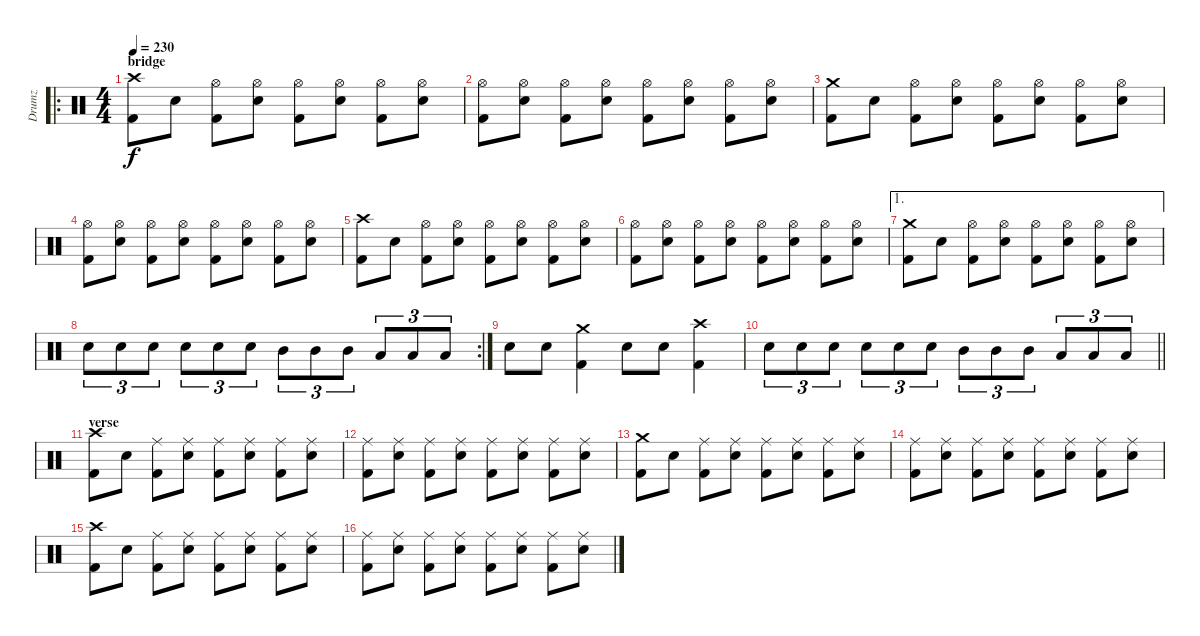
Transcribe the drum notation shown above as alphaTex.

\track ("Drumz" "Drumz") {instrument percussion}
\staff {score}
\articulation defaults
\ro
\ts (4 4)
\section ("" "bridge")
\tempo 230
\clef neutral
\ks c
("Crash high (hit)" "Kick (hit) 2").8{dy f} "Electric Snare (hit)".8 ("Hi-Hat (open)" "Kick (hit) 2").8 ("Hi-Hat (open)" "Electric Snare (hit)").8 ("Hi-Hat (open)" "Kick (hit) 2").8 ("Hi-Hat (open)" "Electric Snare (hit)").8 ("Hi-Hat (open)" "Kick (hit) 2").8 ("Hi-Hat (open)" "Electric Snare (hit)").8 |
("Hi-Hat (open)" "Kick (hit) 2").8 ("Hi-Hat (open)" "Electric Snare (hit)").8 ("Hi-Hat (open)" "Kick (hit) 2").8 ("Hi-Hat (open)" "Electric Snare (hit)").8 ("Hi-Hat (open)" "Kick (hit) 2").8 ("Hi-Hat (open)" "Electric Snare (hit)").8 ("Hi-Hat (open)" "Kick (hit) 2").8 ("Hi-Hat (open)" "Electric Snare (hit)").8 |
("Crash medium (hit)" "Kick (hit) 2").8 "Electric Snare (hit)".8 ("Hi-Hat (open)" "Kick (hit) 2").8 ("Hi-Hat (open)" "Electric Snare (hit)").8 ("Hi-Hat (open)" "Kick (hit) 2").8 ("Hi-Hat (open)" "Electric Snare (hit)").8 ("Hi-Hat (open)" "Kick (hit) 2").8 ("Hi-Hat (open)" "Electric Snare (hit)").8 |
("Hi-Hat (open)" "Kick (hit) 2").8 ("Hi-Hat (open)" "Electric Snare (hit)").8 ("Hi-Hat (open)" "Kick (hit) 2").8 ("Hi-Hat (open)" "Electric Snare (hit)").8 ("Hi-Hat (open)" "Kick (hit) 2").8 ("Hi-Hat (open)" "Electric Snare (hit)").8 ("Hi-Hat (open)" "Kick (hit) 2").8 ("Hi-Hat (open)" "Electric Snare (hit)").8 |
("Crash high (hit)" "Kick (hit) 2").8 "Electric Snare (hit)".8 ("Hi-Hat (open)" "Kick (hit) 2").8 ("Hi-Hat (open)" "Electric Snare (hit)").8 ("Hi-Hat (open)" "Kick (hit) 2").8 ("Hi-Hat (open)" "Electric Snare (hit)").8 ("Hi-Hat (open)" "Kick (hit) 2").8 ("Hi-Hat (open)" "Electric Snare (hit)").8 |
("Hi-Hat (open)" "Kick (hit) 2").8 ("Hi-Hat (open)" "Electric Snare (hit)").8 ("Hi-Hat (open)" "Kick (hit) 2").8 ("Hi-Hat (open)" "Electric Snare (hit)").8 ("Hi-Hat (open)" "Kick (hit) 2").8 ("Hi-Hat (open)" "Electric Snare (hit)").8 ("Hi-Hat (open)" "Kick (hit) 2").8 ("Hi-Hat (open)" "Electric Snare (hit)").8 |
\ae 1
("Crash medium (hit)" "Kick (hit) 2").8 "Electric Snare (hit)".8 ("Hi-Hat (open)" "Kick (hit) 2").8 ("Hi-Hat (open)" "Electric Snare (hit)").8 ("Hi-Hat (open)" "Kick (hit) 2").8 ("Hi-Hat (open)" "Electric Snare (hit)").8 ("Hi-Hat (open)" "Kick (hit) 2").8 ("Hi-Hat (open)" "Electric Snare (hit)").8 |
\rc 2 "Electric Snare (hit)".8{tu (3 2)} "Electric Snare (hit)".8{tu (3 2)} "Electric Snare (hit)".8{tu (3 2)} "Electric Snare (hit)".8{tu (3 2)} "Electric Snare (hit)".8{tu (3 2)} "Electric Snare (hit)".8{tu (3 2)} "Mid Tom (hit)".8{tu (3 2)} "Mid Tom (hit)".8{tu (3 2)} "Mid Tom (hit)".8{tu (3 2)} "Low Tom (hit)".8{tu (3 2)} "Low Tom (hit)".8{tu (3 2)} "Low Tom (hit)".8{tu (3 2)}
|
"Electric Snare (hit)".8 "Electric Snare (hit)".8 ("Crash medium (hit)" "Kick (hit) 2").4 "Electric Snare (hit)".8 "Electric Snare (hit)".8 ("Crash high (hit)" "Kick (hit) 2").4 |
\barLineRight lightlight "Electric Snare (hit)".8{tu (3 2)} "Electric Snare (hit)".8{tu (3 2)} "Electric Snare (hit)".8{tu (3 2)} "Electric Snare (hit)".8{tu (3 2)} "Electric Snare (hit)".8{tu (3 2)} "Electric Snare (hit)".8{tu (3 2)} "Mid Tom (hit)".8{tu (3 2)} "Mid Tom (hit)".8{tu (3 2)} "Mid Tom (hit)".8{tu (3 2)} "Low Tom (hit)".8{tu (3 2)} "Low Tom (hit)".8{tu (3 2)} "Low Tom (hit)".8{tu (3 2)}
|
\section ("" "verse")
("Crash high (hit)" "Kick (hit) 2").8 "Electric Snare (hit)".8 ("Ride (middle)" "Kick (hit) 2").8 ("Ride (middle)" "Electric Snare (hit)").8 ("Ride (middle)" "Kick (hit) 2").8 ("Ride (middle)" "Electric Snare (hit)").8 ("Ride (middle)" "Kick (hit) 2").8 ("Ride (middle)" "Electric Snare (hit)").8 |
("Ride (middle)" "Kick (hit) 2").8 ("Ride (middle)" "Electric Snare (hit)").8 ("Ride (middle)" "Kick (hit) 2").8 ("Ride (middle)" "Electric Snare (hit)").8 ("Ride (middle)" "Kick (hit) 2").8 ("Ride (middle)" "Electric Snare (hit)").8 ("Ride (middle)" "Kick (hit) 2").8 ("Ride (middle)" "Electric Snare (hit)").8 |
("Crash medium (hit)" "Kick (hit) 2").8 "Electric Snare (hit)".8 ("Ride (middle)" "Kick (hit) 2").8 ("Ride (middle)" "Electric Snare (hit)").8 ("Ride (middle)" "Kick (hit) 2").8 ("Ride (middle)" "Electric Snare (hit)").8 ("Ride (middle)" "Kick (hit) 2").8 ("Ride (middle)" "Electric Snare (hit)").8 |
("Ride (middle)" "Kick (hit) 2").8 ("Ride (middle)" "Electric Snare (hit)").8 ("Ride (middle)" "Kick (hit) 2").8 ("Ride (middle)" "Electric Snare (hit)").8 ("Ride (middle)" "Kick (hit) 2").8 ("Ride (middle)" "Electric Snare (hit)").8 ("Ride (middle)" "Kick (hit) 2").8 ("Ride (middle)" "Electric Snare (hit)").8 |
("Crash high (hit)" "Kick (hit) 2").8 "Electric Snare (hit)".8 ("Ride (middle)" "Kick (hit) 2").8 ("Ride (middle)" "Electric Snare (hit)").8 ("Ride (middle)" "Kick (hit) 2").8 ("Ride (middle)" "Electric Snare (hit)").8 ("Ride (middle)" "Kick (hit) 2").8 ("Ride (middle)" "Electric Snare (hit)").8 |
("Ride (middle)" "Kick (hit) 2").8 ("Ride (middle)" "Electric Snare (hit)").8 ("Ride (middle)" "Kick (hit) 2").8 ("Ride (middle)" "Electric Snare (hit)").8 ("Ride (middle)" "Kick (hit) 2").8 ("Ride (middle)" "Electric Snare (hit)").8 ("Ride (middle)" "Kick (hit) 2").8 ("Ride (middle)" "Electric Snare (hit)").8
